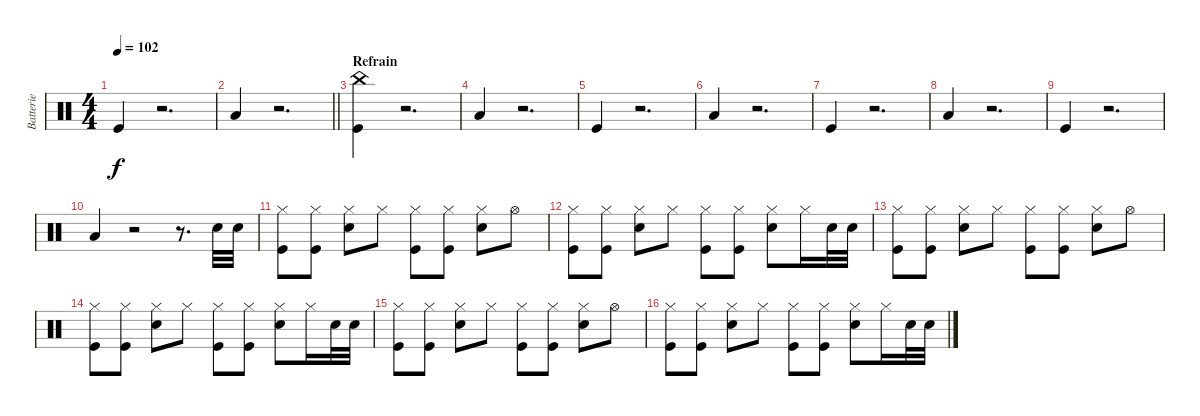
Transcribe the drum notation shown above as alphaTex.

\track ("Batterie" "Batterie") {instrument percussion}
\staff {score}
\articulation defaults
\ts (4 4)
\tempo 102
\clef neutral
\ks c "Kick (hit)".4{dy f}
r.2{d} |
\barLineRight lightlight "Low Floor Tom (hit)".4
r.2{d} |
\section ("" "Refrain")
("Kick (hit)" "China (hit)").4 r.2{d} |
"Low Floor Tom (hit)".4 r.2{d} |
"Kick (hit)".4 r.2{d} |
"Low Floor Tom (hit)".4 r.2{d} |
"Kick (hit)".4 r.2{d} |
"Low Floor Tom (hit)".4 r.2{d} |
"Kick (hit)".4 r.2{d} |
"Low Floor Tom (hit)".4 r.2 r.8{d} "Snare (hit) 2".32 "Snare (hit) 2".32 |
("Kick (hit)" "Hi-Hat (closed)").8 ("Kick (hit)" "Hi-Hat (closed)").8 ("Snare (hit) 2" "Hi-Hat (closed)").8 "Hi-Hat (closed)".8 ("Kick (hit)" "Hi-Hat (closed)").8 ("Kick (hit)" "Hi-Hat (closed)").8 ("Snare (hit) 2" "Hi-Hat (closed)").8 "Hi-Hat (open)".8 |
("Kick (hit)" "Hi-Hat (closed)").8 ("Kick (hit)" "Hi-Hat (closed)").8 ("Snare (hit) 2" "Hi-Hat (closed)").8 "Hi-Hat (closed)".8 ("Kick (hit)" "Hi-Hat (closed)").8 ("Kick (hit)" "Hi-Hat (closed)").8 ("Snare (hit) 2" "Hi-Hat (closed)").8 "Hi-Hat (closed)".16 "Snare (hit) 2".32 "Snare (hit) 2".32 |
("Kick (hit)" "Hi-Hat (closed)").8 ("Kick (hit)" "Hi-Hat (closed)").8 ("Snare (hit) 2" "Hi-Hat (closed)").8 "Hi-Hat (closed)".8 ("Kick (hit)" "Hi-Hat (closed)").8 ("Kick (hit)" "Hi-Hat (closed)").8 ("Snare (hit) 2" "Hi-Hat (closed)").8 "Hi-Hat (open)".8 |
("Kick (hit)" "Hi-Hat (closed)").8 ("Kick (hit)" "Hi-Hat (closed)").8 ("Snare (hit) 2" "Hi-Hat (closed)").8 "Hi-Hat (closed)".8 ("Kick (hit)" "Hi-Hat (closed)").8 ("Kick (hit)" "Hi-Hat (closed)").8 ("Snare (hit) 2" "Hi-Hat (closed)").8 "Hi-Hat (closed)".16 "Snare (hit) 2".32 "Snare (hit) 2".32 |
("Kick (hit)" "Hi-Hat (closed)").8 ("Kick (hit)" "Hi-Hat (closed)").8 ("Snare (hit) 2" "Hi-Hat (closed)").8 "Hi-Hat (closed)".8 ("Kick (hit)" "Hi-Hat (closed)").8 ("Kick (hit)" "Hi-Hat (closed)").8 ("Snare (hit) 2" "Hi-Hat (closed)").8 "Hi-Hat (open)".8 |
("Kick (hit)" "Hi-Hat (closed)").8 ("Kick (hit)" "Hi-Hat (closed)").8 ("Snare (hit) 2" "Hi-Hat (closed)").8 "Hi-Hat (closed)".8 ("Kick (hit)" "Hi-Hat (closed)").8 ("Kick (hit)" "Hi-Hat (closed)").8 ("Snare (hit) 2" "Hi-Hat (closed)").8 "Hi-Hat (closed)".16 "Snare (hit) 2".32 "Snare (hit) 2".32
